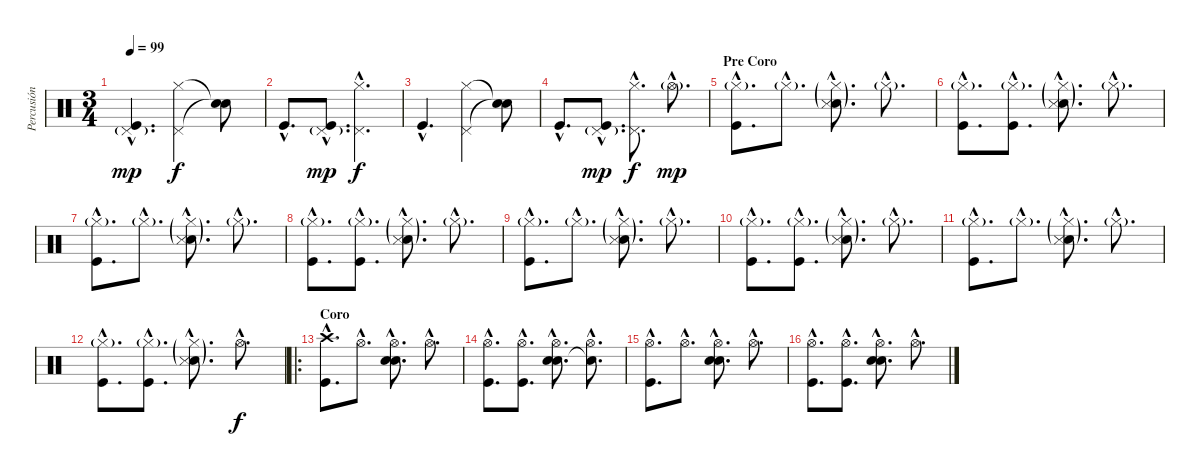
\track ("Percusión" "Percusión") {instrument percussion}
\staff {score}
\articulation defaults
\ts (3 4)
\tempo 99
\clef neutral
\ks c
("Kick (hit)"{hac} "Pedal Hi-Hat (hit)"{g hac}).4{d dy mp} ("Hi-Hat (closed)" "Pedal Hi-Hat (hit)").4{dy f} ("Snare (hit)"{t} "Snare (hit)"{t}).8 |
"Kick (hit)"{hac}.8{d} ("Kick (hit)"{hac} "Pedal Hi-Hat (hit)"{g hac}).8{d dy mp} ("Hi-Hat (closed)"{hac} "Pedal Hi-Hat (hit)"{hac}).4{d dy f} |
"Kick (hit)"{hac}.4{d} ("Hi-Hat (closed)" "Pedal Hi-Hat (hit)").4 ("Snare (hit)"{t} "Snare (hit)"{t}).8 |
"Kick (hit)"{hac}.8{d} ("Kick (hit)"{hac} "Pedal Hi-Hat (hit)"{g hac}).8{d dy mp} ("Hi-Hat (closed)"{hac} "Pedal Hi-Hat (hit)"{hac}).8{d dy f} "Hi-Hat (open)"{g hac}.8{d dy mp} |
\section ("" "Pre Coro")
("Kick (hit)"{hac} "Hi-Hat (closed)"{g hac}).8{d} "Hi-Hat (closed)"{g hac}.8{d} ("Electric Snare (hit)"{g hac} "Hi-Hat (closed)"{g hac} "Metronome (hit)"{hac}).8{d} "Hi-Hat (closed)"{g hac}.8{d} |
("Kick (hit)"{hac} "Hi-Hat (closed)"{g hac}).8{d} ("Kick (hit)"{hac} "Hi-Hat (closed)"{g hac}).8{d} ("Electric Snare (hit)"{g hac} "Hi-Hat (closed)"{g hac} "Metronome (hit)"{hac}).8{d} "Hi-Hat (closed)"{g hac}.8{d} |
("Kick (hit)"{hac} "Hi-Hat (closed)"{g hac}).8{d} "Hi-Hat (closed)"{g hac}.8{d} ("Electric Snare (hit)"{g hac} "Hi-Hat (closed)"{g hac} "Metronome (hit)"{hac}).8{d} "Hi-Hat (closed)"{g hac}.8{d} |
("Kick (hit)"{hac} "Hi-Hat (closed)"{g hac}).8{d} ("Kick (hit)"{hac} "Hi-Hat (closed)"{g hac}).8{d} ("Electric Snare (hit)"{g hac} "Hi-Hat (closed)"{g hac} "Metronome (hit)"{hac}).8{d} "Hi-Hat (closed)"{g hac}.8{d} |
("Kick (hit)"{hac} "Hi-Hat (closed)"{g hac}).8{d} "Hi-Hat (closed)"{g hac}.8{d} ("Electric Snare (hit)"{g hac} "Hi-Hat (closed)"{g hac} "Metronome (hit)"{hac}).8{d} "Hi-Hat (closed)"{g hac}.8{d} |
("Kick (hit)"{hac} "Hi-Hat (closed)"{g hac}).8{d} ("Kick (hit)"{hac} "Hi-Hat (closed)"{g hac}).8{d} ("Electric Snare (hit)"{g hac} "Hi-Hat (closed)"{g hac} "Metronome (hit)"{hac}).8{d} "Hi-Hat (closed)"{g hac}.8{d} |
("Kick (hit)"{hac} "Hi-Hat (closed)"{g hac}).8{d} "Hi-Hat (closed)"{g hac}.8{d} ("Electric Snare (hit)"{g hac} "Hi-Hat (closed)"{g hac} "Metronome (hit)"{hac}).8{d} "Hi-Hat (closed)"{g hac}.8{d} |
("Kick (hit)"{hac} "Hi-Hat (closed)"{g hac}).8{d} ("Kick (hit)"{hac} "Hi-Hat (closed)"{g hac}).8{d} ("Electric Snare (hit)"{g hac} "Hi-Hat (closed)"{g hac} "Metronome (hit)"{hac}).8{d} "Hi-Hat (open)"{hac}.8{d dy f} |
\ro
\section ("" "Coro")
("Crash high (hit)"{hac} "Kick (hit)"{hac}).8{d} "Hi-Hat (open)"{hac}.8{d} ("Hi-Hat (open)"{hac} "Electric Snare (hit)"{hac} "Snare (hit) 2"{hac}).8{d} "Hi-Hat (open)"{hac}.8{d} |
("Hi-Hat (open)"{hac} "Kick (hit)"{hac}).8{d} ("Hi-Hat (open)"{hac} "Kick (hit)"{hac}).8{d} ("Hi-Hat (open)"{hac} "Electric Snare (hit)"{hac} "Snare (hit) 2"{hac}).8{d} ("Hi-Hat (open)"{hac} "Snare (hit)"{hac t}).8{d} |
("Hi-Hat (open)"{hac} "Kick (hit)"{hac}).8{d} "Hi-Hat (open)"{hac}.8{d} ("Hi-Hat (open)"{hac} "Electric Snare (hit)"{hac} "Snare (hit) 2"{hac}).8{d} "Hi-Hat (open)"{hac}.8{d} |
("Hi-Hat (open)"{hac} "Kick (hit)"{hac}).8{d} ("Hi-Hat (open)"{hac} "Kick (hit)"{hac}).8{d} ("Hi-Hat (open)"{hac} "Electric Snare (hit)"{hac} "Snare (hit) 2"{hac}).8{d} "Hi-Hat (open)"{hac}.8{d}
